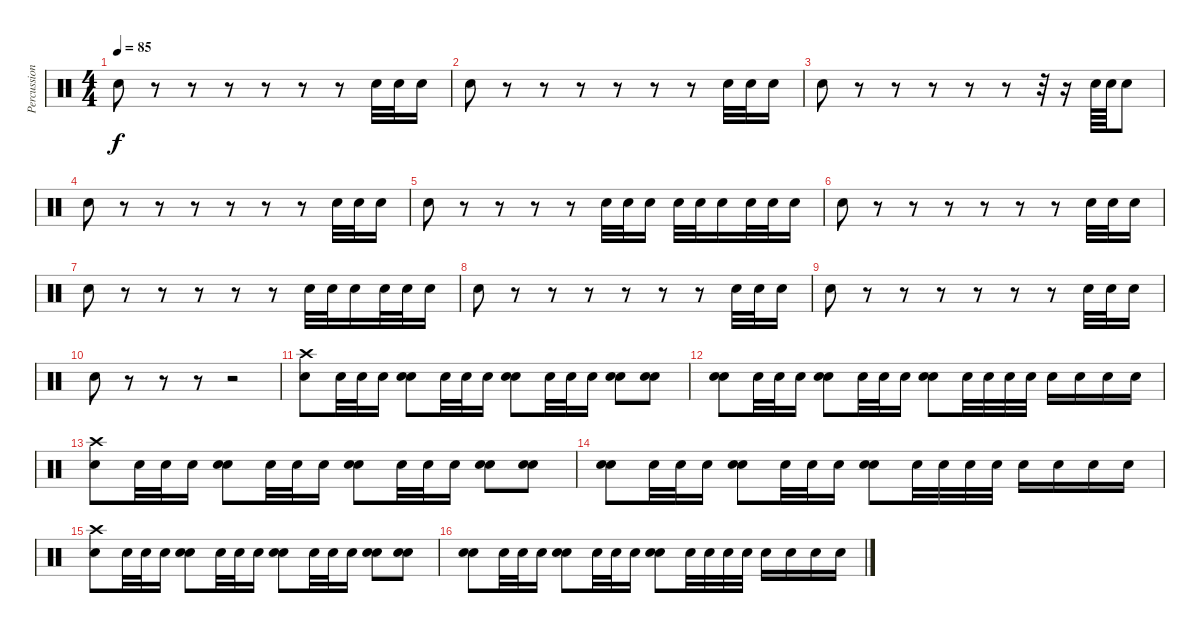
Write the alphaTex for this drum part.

\track ("Percussion" "Percussion") {instrument percussion}
\staff {score}
\articulation defaults
\ts (4 4)
\tempo 85
\clef neutral
\ks c "Electric Snare (hit)".8{dy f}
r.8 r.8 r.8 r.8 r.8 r.8 "Electric Snare (hit)".32 "Electric Snare (hit)".32 "Electric Snare (hit)".16 |
"Electric Snare (hit)".8 r.8 r.8 r.8 r.8 r.8 r.8 "Electric Snare (hit)".32 "Electric Snare (hit)".32 "Electric Snare (hit)".16 |
"Electric Snare (hit)".8 r.8 r.8 r.8 r.8 r.8 r.32 r.16 "Electric Snare (hit)".64 "Electric Snare (hit)".64 "Electric Snare (hit)".8 |
"Electric Snare (hit)".8 r.8 r.8 r.8 r.8 r.8 r.8 "Electric Snare (hit)".32 "Electric Snare (hit)".32 "Electric Snare (hit)".16 |
"Electric Snare (hit)".8 r.8 r.8 r.8 r.8 "Electric Snare (hit)".32 "Electric Snare (hit)".32 "Electric Snare (hit)".16 "Electric Snare (hit)".32 "Electric Snare (hit)".32 "Electric Snare (hit)".16 "Electric Snare (hit)".32 "Electric Snare (hit)".32 "Electric Snare (hit)".16 |
"Electric Snare (hit)".8 r.8 r.8 r.8 r.8 r.8 r.8 "Electric Snare (hit)".32 "Electric Snare (hit)".32 "Electric Snare (hit)".16 |
"Electric Snare (hit)".8 r.8 r.8 r.8 r.8 r.8 "Electric Snare (hit)".32 "Electric Snare (hit)".32 "Electric Snare (hit)".16 "Electric Snare (hit)".32 "Electric Snare (hit)".32 "Electric Snare (hit)".16 |
"Electric Snare (hit)".8 r.8 r.8 r.8 r.8 r.8 r.8 "Electric Snare (hit)".32 "Electric Snare (hit)".32 "Electric Snare (hit)".16 |
"Electric Snare (hit)".8 r.8 r.8 r.8 r.8 r.8 r.8 "Electric Snare (hit)".32 "Electric Snare (hit)".32 "Electric Snare (hit)".16 |
"Electric Snare (hit)".8 r.8 r.8 r.8 r.2 |
("Crash high (hit)" "Electric Snare (hit)").8 "Electric Snare (hit)".32 "Electric Snare (hit)".32 "Electric Snare (hit)".16 ("Electric Snare (hit)" "Electric Snare (hit)").8 "Electric Snare (hit)".32 "Electric Snare (hit)".32 "Electric Snare (hit)".16 ("Electric Snare (hit)" "Electric Snare (hit)").8 "Electric Snare (hit)".32 "Electric Snare (hit)".32 "Electric Snare (hit)".16 ("Electric Snare (hit)" "Electric Snare (hit)").8 ("Electric Snare (hit)" "Electric Snare (hit)").8 |
("Electric Snare (hit)" "Electric Snare (hit)").8 "Electric Snare (hit)".32 "Electric Snare (hit)".32 "Electric Snare (hit)".16 ("Electric Snare (hit)" "Electric Snare (hit)").8 "Electric Snare (hit)".32 "Electric Snare (hit)".32 "Electric Snare (hit)".16 ("Electric Snare (hit)" "Electric Snare (hit)").8 "Electric Snare (hit)".32 "Electric Snare (hit)".32 "Electric Snare (hit)".32 "Electric Snare (hit)".32 "Electric Snare (hit)".16 "Electric Snare (hit)".16 "Electric Snare (hit)".16 "Electric Snare (hit)".16 |
("Crash high (hit)" "Electric Snare (hit)").8 "Electric Snare (hit)".32 "Electric Snare (hit)".32 "Electric Snare (hit)".16 ("Electric Snare (hit)" "Electric Snare (hit)").8 "Electric Snare (hit)".32 "Electric Snare (hit)".32 "Electric Snare (hit)".16 ("Electric Snare (hit)" "Electric Snare (hit)").8 "Electric Snare (hit)".32 "Electric Snare (hit)".32 "Electric Snare (hit)".16 ("Electric Snare (hit)" "Electric Snare (hit)").8 ("Electric Snare (hit)" "Electric Snare (hit)").8 |
("Electric Snare (hit)" "Electric Snare (hit)").8 "Electric Snare (hit)".32 "Electric Snare (hit)".32 "Electric Snare (hit)".16 ("Electric Snare (hit)" "Electric Snare (hit)").8 "Electric Snare (hit)".32 "Electric Snare (hit)".32 "Electric Snare (hit)".16 ("Electric Snare (hit)" "Electric Snare (hit)").8 "Electric Snare (hit)".32 "Electric Snare (hit)".32 "Electric Snare (hit)".32 "Electric Snare (hit)".32 "Electric Snare (hit)".16 "Electric Snare (hit)".16 "Electric Snare (hit)".16 "Electric Snare (hit)".16 |
("Crash high (hit)" "Electric Snare (hit)").8 "Electric Snare (hit)".32 "Electric Snare (hit)".32 "Electric Snare (hit)".16 ("Electric Snare (hit)" "Electric Snare (hit)").8 "Electric Snare (hit)".32 "Electric Snare (hit)".32 "Electric Snare (hit)".16 ("Electric Snare (hit)" "Electric Snare (hit)").8 "Electric Snare (hit)".32 "Electric Snare (hit)".32 "Electric Snare (hit)".16 ("Electric Snare (hit)" "Electric Snare (hit)").8 ("Electric Snare (hit)" "Electric Snare (hit)").8 |
("Electric Snare (hit)" "Electric Snare (hit)").8 "Electric Snare (hit)".32 "Electric Snare (hit)".32 "Electric Snare (hit)".16 ("Electric Snare (hit)" "Electric Snare (hit)").8 "Electric Snare (hit)".32 "Electric Snare (hit)".32 "Electric Snare (hit)".16 ("Electric Snare (hit)" "Electric Snare (hit)").8 "Electric Snare (hit)".32 "Electric Snare (hit)".32 "Electric Snare (hit)".32 "Electric Snare (hit)".32 "Electric Snare (hit)".16 "Electric Snare (hit)".16 "Electric Snare (hit)".16 "Electric Snare (hit)".16
